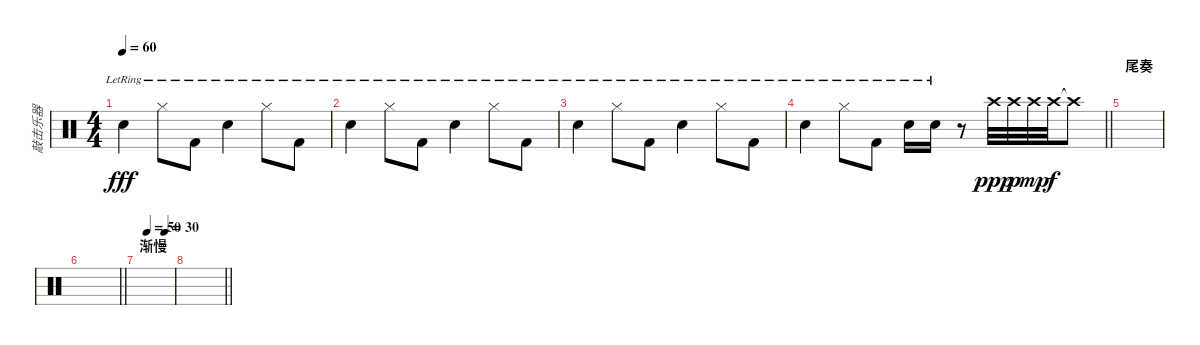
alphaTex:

\track ("敲击乐器" "敲击乐器") {instrument percussion}
\staff {score}
\articulation defaults
\ts (4 4)
\tempo 60
\clef neutral
\ks c "Snare (hit) 2"{lr}.4{dy fff} "Hi-Hat (closed)"{lr}.8 "Kick (hit) 2"{lr}.8 "Snare (hit) 2"{lr}.4 "Hi-Hat (closed)"{lr}.8 "Kick (hit) 2"{lr}.8
|
"Snare (hit) 2"{lr}.4 "Hi-Hat (closed)"{lr}.8 "Kick (hit) 2"{lr}.8 "Snare (hit) 2"{lr}.4 "Hi-Hat (closed)"{lr}.8 "Kick (hit) 2"{lr}.8 |
"Snare (hit) 2"{lr}.4 "Hi-Hat (closed)"{lr}.8 "Kick (hit) 2"{lr}.8 "Snare (hit) 2"{lr}.4 "Hi-Hat (closed)"{lr}.8 "Kick (hit) 2"{lr}.8 |
\barLineRight lightlight "Snare (hit) 2"{lr}.4 "Hi-Hat (closed)"{lr}.8 "Kick (hit) 2"{lr}.8 "Snare (hit) 2"{lr}.16 "Snare (hit) 2"{lr}.16
r.8 "Crash high (hit)".32{dy ppp} "Crash high (hit)".32{dy p} "Crash high (hit)".32{dy mp} "Crash high (hit)".32{dy f} "Crash high (hit)"{t}.8 |
\section ("" "尾奏")
|
\barLineRight lightlight
|
\section ("" "渐慢")
\tempo (50 0.25)
\tempo (30 0.75)
|
\barLineRight lightlight
